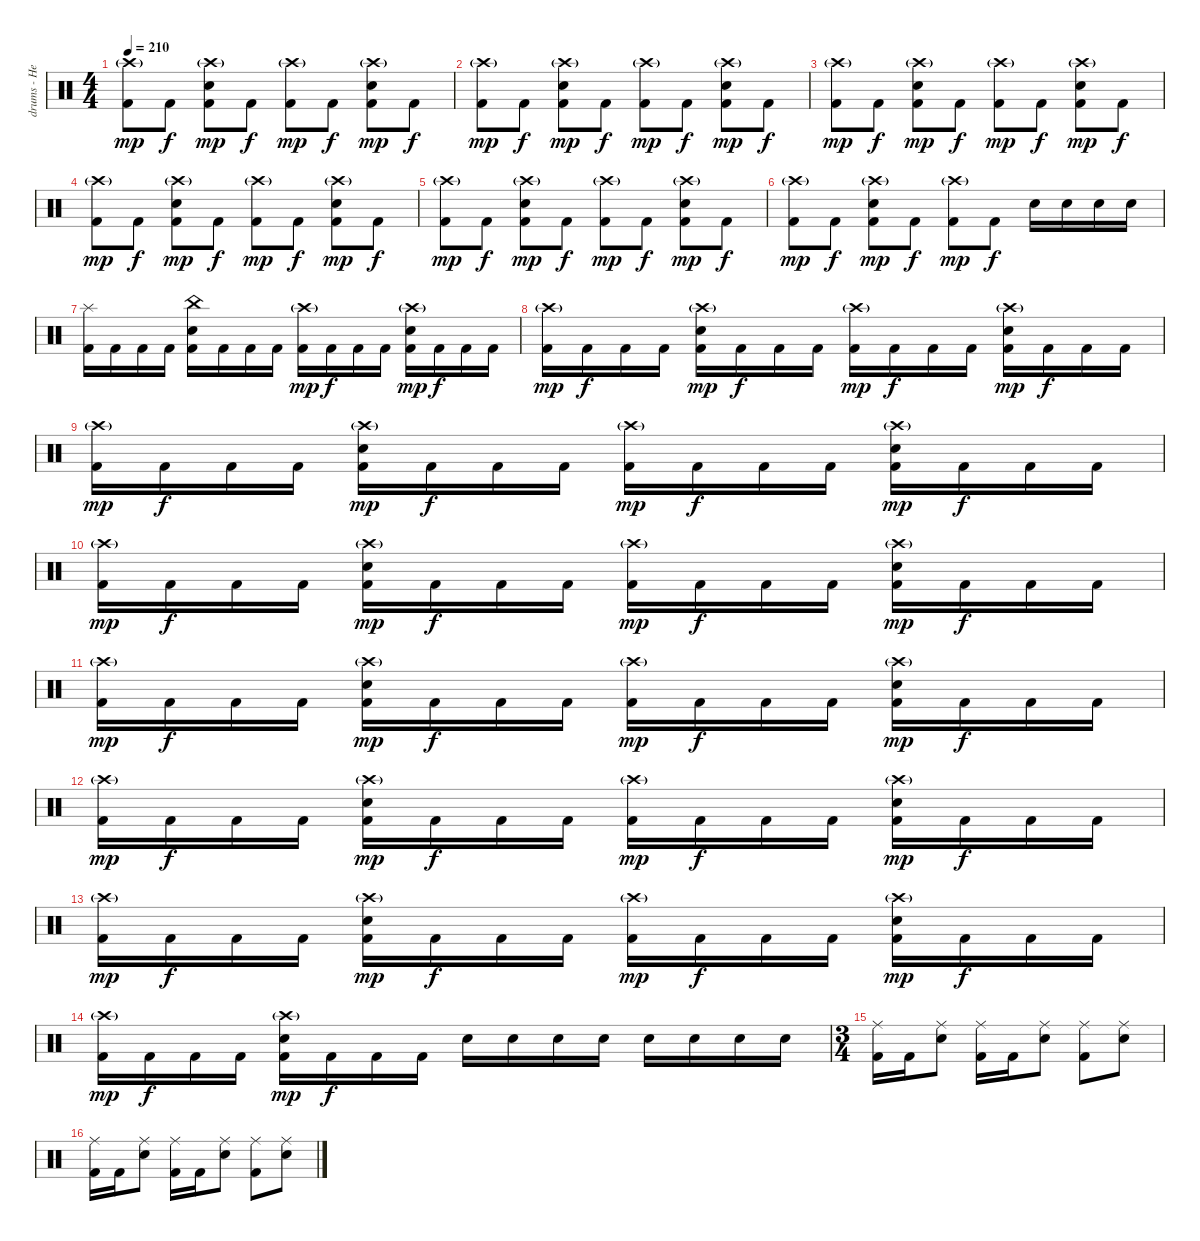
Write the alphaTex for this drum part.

\track ("drums - Heikki" "drums - He") {instrument percussion}
\staff {score}
\articulation defaults
\ts (4 4)
\tempo 210
\clef neutral
\ks c
("Crash high (hit)"{g} "Kick (hit) 2").8{dy mp} "Kick (hit) 2".8{dy f} ("Crash high (hit)"{g} "Snare (hit) 2" "Kick (hit) 2").8{dy mp} "Kick (hit) 2".8{dy f} ("Crash high (hit)"{g} "Kick (hit) 2").8{dy mp} "Kick (hit) 2".8{dy f} ("Crash high (hit)"{g} "Snare (hit) 2" "Kick (hit) 2").8{dy mp} "Kick (hit) 2".8{dy f} |
("Crash high (hit)"{g} "Kick (hit) 2").8{dy mp} "Kick (hit) 2".8{dy f} ("Crash high (hit)"{g} "Snare (hit) 2" "Kick (hit) 2").8{dy mp} "Kick (hit) 2".8{dy f} ("Crash high (hit)"{g} "Kick (hit) 2").8{dy mp} "Kick (hit) 2".8{dy f} ("Crash high (hit)"{g} "Snare (hit) 2" "Kick (hit) 2").8{dy mp} "Kick (hit) 2".8{dy f} |
("Crash high (hit)"{g} "Kick (hit) 2").8{dy mp} "Kick (hit) 2".8{dy f} ("Crash high (hit)"{g} "Snare (hit) 2" "Kick (hit) 2").8{dy mp} "Kick (hit) 2".8{dy f} ("Crash high (hit)"{g} "Kick (hit) 2").8{dy mp} "Kick (hit) 2".8{dy f} ("Crash high (hit)"{g} "Snare (hit) 2" "Kick (hit) 2").8{dy mp} "Kick (hit) 2".8{dy f} |
("Crash high (hit)"{g} "Kick (hit) 2").8{dy mp} "Kick (hit) 2".8{dy f} ("Crash high (hit)"{g} "Snare (hit) 2" "Kick (hit) 2").8{dy mp} "Kick (hit) 2".8{dy f} ("Crash high (hit)"{g} "Kick (hit) 2").8{dy mp} "Kick (hit) 2".8{dy f} ("Crash high (hit)"{g} "Snare (hit) 2" "Kick (hit) 2").8{dy mp} "Kick (hit) 2".8{dy f} |
("Crash high (hit)"{g} "Kick (hit) 2").8{dy mp} "Kick (hit) 2".8{dy f} ("Crash high (hit)"{g} "Snare (hit) 2" "Kick (hit) 2").8{dy mp} "Kick (hit) 2".8{dy f} ("Crash high (hit)"{g} "Kick (hit) 2").8{dy mp} "Kick (hit) 2".8{dy f} ("Crash high (hit)"{g} "Snare (hit) 2" "Kick (hit) 2").8{dy mp} "Kick (hit) 2".8{dy f} |
("Crash high (hit)"{g} "Kick (hit) 2").8{dy mp} "Kick (hit) 2".8{dy f} ("Crash high (hit)"{g} "Snare (hit) 2" "Kick (hit) 2").8{dy mp} "Kick (hit) 2".8{dy f} ("Crash high (hit)"{g} "Kick (hit) 2").8{dy mp} "Kick (hit) 2".8{dy f} "Snare (hit) 2".16 "Snare (hit) 2".16 "Snare (hit) 2".16 "Snare (hit) 2".16 |
("Splash (hit)" "Kick (hit) 2").16 "Kick (hit) 2".16 "Kick (hit) 2".16 "Kick (hit) 2".16 ("China (hit)" "Snare (hit) 2" "Kick (hit) 2").16 "Kick (hit) 2".16 "Kick (hit) 2".16 "Kick (hit) 2".16 ("Crash high (hit)"{g} "Kick (hit) 2").16{dy mp} "Kick (hit) 2".16{dy f} "Kick (hit) 2".16 "Kick (hit) 2".16 ("Crash high (hit)"{g} "Snare (hit) 2" "Kick (hit) 2").16{dy mp} "Kick (hit) 2".16{dy f} "Kick (hit) 2".16 "Kick (hit) 2".16 |
("Crash high (hit)"{g} "Kick (hit) 2").16{dy mp} "Kick (hit) 2".16{dy f} "Kick (hit) 2".16 "Kick (hit) 2".16 ("Crash high (hit)"{g} "Snare (hit) 2" "Kick (hit) 2").16{dy mp} "Kick (hit) 2".16{dy f} "Kick (hit) 2".16 "Kick (hit) 2".16 ("Crash high (hit)"{g} "Kick (hit) 2").16{dy mp} "Kick (hit) 2".16{dy f} "Kick (hit) 2".16 "Kick (hit) 2".16 ("Crash high (hit)"{g} "Snare (hit) 2" "Kick (hit) 2").16{dy mp} "Kick (hit) 2".16{dy f} "Kick (hit) 2".16 "Kick (hit) 2".16 |
("Crash high (hit)"{g} "Kick (hit) 2").16{dy mp} "Kick (hit) 2".16{dy f} "Kick (hit) 2".16 "Kick (hit) 2".16 ("Crash high (hit)"{g} "Snare (hit) 2" "Kick (hit) 2").16{dy mp} "Kick (hit) 2".16{dy f} "Kick (hit) 2".16 "Kick (hit) 2".16 ("Crash high (hit)"{g} "Kick (hit) 2").16{dy mp} "Kick (hit) 2".16{dy f} "Kick (hit) 2".16 "Kick (hit) 2".16 ("Crash high (hit)"{g} "Snare (hit) 2" "Kick (hit) 2").16{dy mp} "Kick (hit) 2".16{dy f} "Kick (hit) 2".16 "Kick (hit) 2".16 |
("Crash high (hit)"{g} "Kick (hit) 2").16{dy mp} "Kick (hit) 2".16{dy f} "Kick (hit) 2".16 "Kick (hit) 2".16 ("Crash high (hit)"{g} "Snare (hit) 2" "Kick (hit) 2").16{dy mp} "Kick (hit) 2".16{dy f} "Kick (hit) 2".16 "Kick (hit) 2".16 ("Crash high (hit)"{g} "Kick (hit) 2").16{dy mp} "Kick (hit) 2".16{dy f} "Kick (hit) 2".16 "Kick (hit) 2".16 ("Crash high (hit)"{g} "Snare (hit) 2" "Kick (hit) 2").16{dy mp} "Kick (hit) 2".16{dy f} "Kick (hit) 2".16 "Kick (hit) 2".16 |
("Crash high (hit)"{g} "Kick (hit) 2").16{dy mp} "Kick (hit) 2".16{dy f} "Kick (hit) 2".16 "Kick (hit) 2".16 ("Crash high (hit)"{g} "Snare (hit) 2" "Kick (hit) 2").16{dy mp} "Kick (hit) 2".16{dy f} "Kick (hit) 2".16 "Kick (hit) 2".16 ("Crash high (hit)"{g} "Kick (hit) 2").16{dy mp} "Kick (hit) 2".16{dy f} "Kick (hit) 2".16 "Kick (hit) 2".16 ("Crash high (hit)"{g} "Snare (hit) 2" "Kick (hit) 2").16{dy mp} "Kick (hit) 2".16{dy f} "Kick (hit) 2".16 "Kick (hit) 2".16 |
("Crash high (hit)"{g} "Kick (hit) 2").16{dy mp} "Kick (hit) 2".16{dy f} "Kick (hit) 2".16 "Kick (hit) 2".16 ("Crash high (hit)"{g} "Snare (hit) 2" "Kick (hit) 2").16{dy mp} "Kick (hit) 2".16{dy f} "Kick (hit) 2".16 "Kick (hit) 2".16 ("Crash high (hit)"{g} "Kick (hit) 2").16{dy mp} "Kick (hit) 2".16{dy f} "Kick (hit) 2".16 "Kick (hit) 2".16 ("Crash high (hit)"{g} "Snare (hit) 2" "Kick (hit) 2").16{dy mp} "Kick (hit) 2".16{dy f} "Kick (hit) 2".16 "Kick (hit) 2".16 |
("Crash high (hit)"{g} "Kick (hit) 2").16{dy mp} "Kick (hit) 2".16{dy f} "Kick (hit) 2".16 "Kick (hit) 2".16 ("Crash high (hit)"{g} "Snare (hit) 2" "Kick (hit) 2").16{dy mp} "Kick (hit) 2".16{dy f} "Kick (hit) 2".16 "Kick (hit) 2".16 ("Crash high (hit)"{g} "Kick (hit) 2").16{dy mp} "Kick (hit) 2".16{dy f} "Kick (hit) 2".16 "Kick (hit) 2".16 ("Crash high (hit)"{g} "Snare (hit) 2" "Kick (hit) 2").16{dy mp} "Kick (hit) 2".16{dy f} "Kick (hit) 2".16 "Kick (hit) 2".16 |
("Crash high (hit)"{g} "Kick (hit) 2").16{dy mp} "Kick (hit) 2".16{dy f} "Kick (hit) 2".16 "Kick (hit) 2".16 ("Crash high (hit)"{g} "Snare (hit) 2" "Kick (hit) 2").16{dy mp} "Kick (hit) 2".16{dy f} "Kick (hit) 2".16 "Kick (hit) 2".16 "Snare (hit) 2".16 "Snare (hit) 2".16 "Snare (hit) 2".16 "Snare (hit) 2".16 "Snare (hit) 2".16 "Snare (hit) 2".16 "Snare (hit) 2".16 "Snare (hit) 2".16 |
\ts (3 4)
("Ride (middle)" "Kick (hit) 2").16 "Kick (hit) 2".16 ("Ride (middle)" "Snare (hit) 2").8 ("Ride (middle)" "Kick (hit) 2").16 "Kick (hit) 2".16 ("Ride (middle)" "Snare (hit) 2").8 ("Ride (middle)" "Kick (hit) 2").8 ("Ride (middle)" "Snare (hit) 2").8 |
("Ride (middle)" "Kick (hit) 2").16 "Kick (hit) 2".16 ("Ride (middle)" "Snare (hit) 2").8 ("Ride (middle)" "Kick (hit) 2").16 "Kick (hit) 2".16 ("Ride (middle)" "Snare (hit) 2").8 ("Ride (middle)" "Kick (hit) 2").8 ("Ride (middle)" "Snare (hit) 2").8
